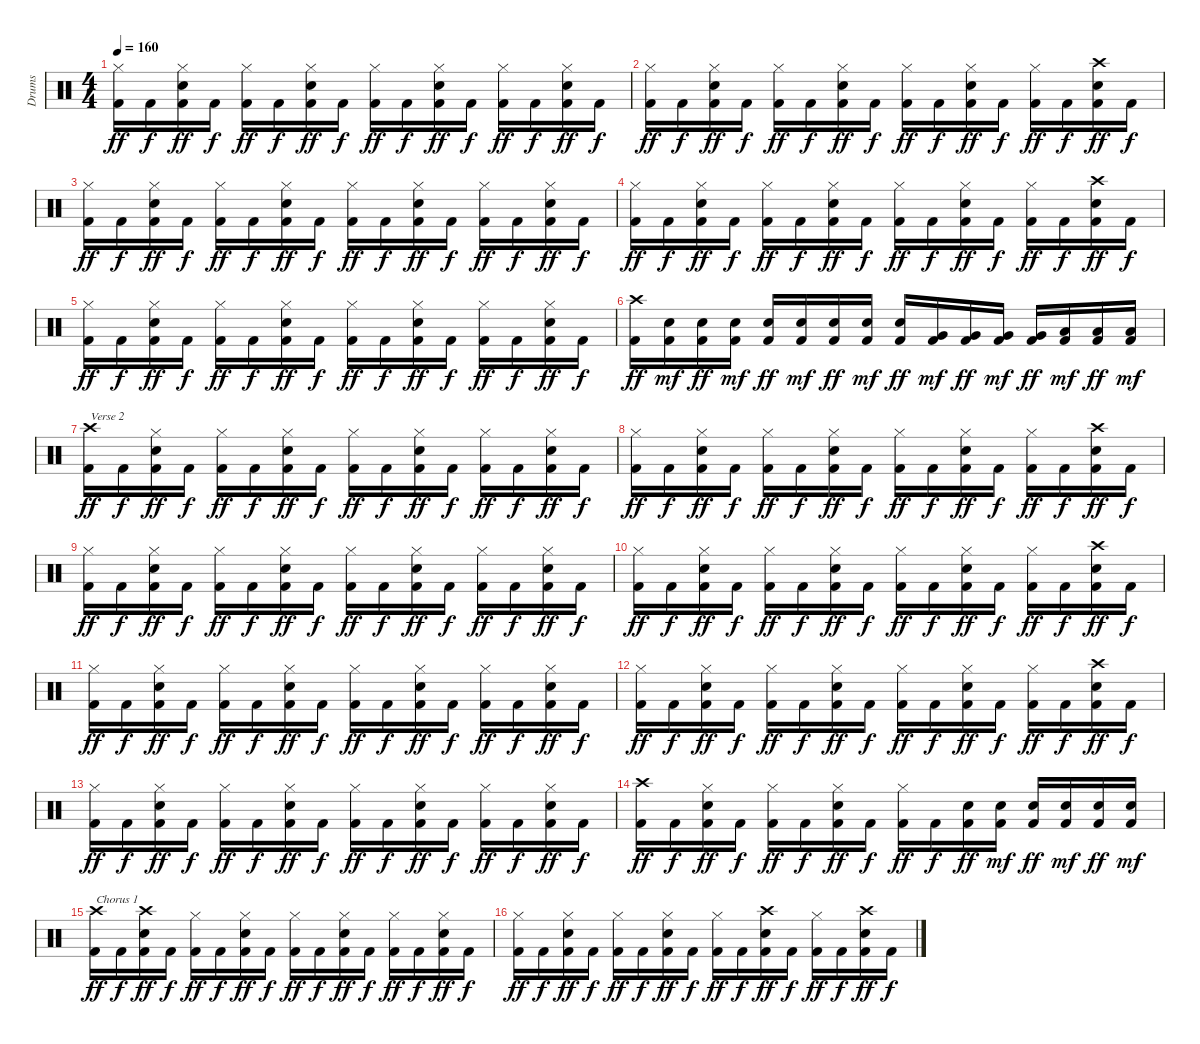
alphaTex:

\track ("Drums" "Drums") {instrument percussion}
\staff {score}
\articulation defaults
\ts (4 4)
\tempo 160
\clef neutral
\ks c
("Hi-Hat (closed)" "Kick (hit) 2").16{dy ff} "Kick (hit) 2".16{dy f} ("Hi-Hat (closed)" "Snare (hit) 2" "Kick (hit) 2").16{dy ff} "Kick (hit) 2".16{dy f} ("Hi-Hat (closed)" "Kick (hit) 2").16{dy ff} "Kick (hit) 2".16{dy f} ("Hi-Hat (closed)" "Snare (hit) 2" "Kick (hit) 2").16{dy ff} "Kick (hit) 2".16{dy f} ("Hi-Hat (closed)" "Kick (hit) 2").16{dy ff} "Kick (hit) 2".16{dy f} ("Hi-Hat (closed)" "Snare (hit) 2" "Kick (hit) 2").16{dy ff} "Kick (hit) 2".16{dy f} ("Hi-Hat (closed)" "Kick (hit) 2").16{dy ff} "Kick (hit) 2".16{dy f} ("Hi-Hat (closed)" "Snare (hit) 2" "Kick (hit) 2").16{dy ff} "Kick (hit) 2".16{dy f} |
("Hi-Hat (closed)" "Kick (hit) 2").16{dy ff} "Kick (hit) 2".16{dy f} ("Hi-Hat (closed)" "Snare (hit) 2" "Kick (hit) 2").16{dy ff} "Kick (hit) 2".16{dy f} ("Hi-Hat (closed)" "Kick (hit) 2").16{dy ff} "Kick (hit) 2".16{dy f} ("Hi-Hat (closed)" "Snare (hit) 2" "Kick (hit) 2").16{dy ff} "Kick (hit) 2".16{dy f} ("Hi-Hat (closed)" "Kick (hit) 2").16{dy ff} "Kick (hit) 2".16{dy f} ("Hi-Hat (closed)" "Snare (hit) 2" "Kick (hit) 2").16{dy ff} "Kick (hit) 2".16{dy f} ("Hi-Hat (closed)" "Kick (hit) 2").16{dy ff} "Kick (hit) 2".16{dy f} ("Crash high (hit)" "Snare (hit) 2" "Kick (hit) 2").16{dy ff} "Kick (hit) 2".16{dy f} |
("Hi-Hat (closed)" "Kick (hit) 2").16{dy ff} "Kick (hit) 2".16{dy f} ("Hi-Hat (closed)" "Snare (hit) 2" "Kick (hit) 2").16{dy ff} "Kick (hit) 2".16{dy f} ("Hi-Hat (closed)" "Kick (hit) 2").16{dy ff} "Kick (hit) 2".16{dy f} ("Hi-Hat (closed)" "Snare (hit) 2" "Kick (hit) 2").16{dy ff} "Kick (hit) 2".16{dy f} ("Hi-Hat (closed)" "Kick (hit) 2").16{dy ff} "Kick (hit) 2".16{dy f} ("Hi-Hat (closed)" "Snare (hit) 2" "Kick (hit) 2").16{dy ff} "Kick (hit) 2".16{dy f} ("Hi-Hat (closed)" "Kick (hit) 2").16{dy ff} "Kick (hit) 2".16{dy f} ("Hi-Hat (closed)" "Snare (hit) 2" "Kick (hit) 2").16{dy ff} "Kick (hit) 2".16{dy f} |
("Hi-Hat (closed)" "Kick (hit) 2").16{dy ff} "Kick (hit) 2".16{dy f} ("Hi-Hat (closed)" "Snare (hit) 2" "Kick (hit) 2").16{dy ff} "Kick (hit) 2".16{dy f} ("Hi-Hat (closed)" "Kick (hit) 2").16{dy ff} "Kick (hit) 2".16{dy f} ("Hi-Hat (closed)" "Snare (hit) 2" "Kick (hit) 2").16{dy ff} "Kick (hit) 2".16{dy f} ("Hi-Hat (closed)" "Kick (hit) 2").16{dy ff} "Kick (hit) 2".16{dy f} ("Hi-Hat (closed)" "Snare (hit) 2" "Kick (hit) 2").16{dy ff} "Kick (hit) 2".16{dy f} ("Hi-Hat (closed)" "Kick (hit) 2").16{dy ff} "Kick (hit) 2".16{dy f} ("Crash high (hit)" "Snare (hit) 2" "Kick (hit) 2").16{dy ff} "Kick (hit) 2".16{dy f} |
("Hi-Hat (closed)" "Kick (hit) 2").16{dy ff} "Kick (hit) 2".16{dy f} ("Hi-Hat (closed)" "Snare (hit) 2" "Kick (hit) 2").16{dy ff} "Kick (hit) 2".16{dy f} ("Hi-Hat (closed)" "Kick (hit) 2").16{dy ff} "Kick (hit) 2".16{dy f} ("Hi-Hat (closed)" "Snare (hit) 2" "Kick (hit) 2").16{dy ff} "Kick (hit) 2".16{dy f} ("Hi-Hat (closed)" "Kick (hit) 2").16{dy ff} "Kick (hit) 2".16{dy f} ("Hi-Hat (closed)" "Snare (hit) 2" "Kick (hit) 2").16{dy ff} "Kick (hit) 2".16{dy f} ("Hi-Hat (closed)" "Kick (hit) 2").16{dy ff} "Kick (hit) 2".16{dy f} ("Hi-Hat (closed)" "Snare (hit) 2" "Kick (hit) 2").16{dy ff} "Kick (hit) 2".16{dy f} |
("Crash high (hit)" "Kick (hit) 2").16{dy ff} ("Snare (hit) 2" "Kick (hit) 2").16{dy mf} ("Snare (hit) 2" "Kick (hit) 2").16{dy ff} ("Snare (hit) 2" "Kick (hit) 2").16{dy mf} ("Snare (hit) 2" "Kick (hit) 2").16{dy ff} ("Snare (hit) 2" "Kick (hit) 2").16{dy mf} ("Snare (hit) 2" "Kick (hit) 2").16{dy ff} ("Snare (hit) 2" "Kick (hit) 2").16{dy mf} ("Snare (hit) 2" "Kick (hit) 2").16{dy ff} ("Very Low Tom (hit)" "Kick (hit) 2").16{dy mf} ("Very Low Tom (hit)" "Kick (hit) 2").16{dy ff} ("Very Low Tom (hit)" "Kick (hit) 2").16{dy mf} ("Very Low Tom (hit)" "Kick (hit) 2").16{dy ff} ("Low Floor Tom (hit)" "Kick (hit) 2").16{dy mf} ("Low Floor Tom (hit)" "Kick (hit) 2").16{dy ff} ("Low Floor Tom (hit)" "Kick (hit) 2").16{dy mf} |
("Crash high (hit)" "Kick (hit) 2").16{txt "Verse 2" dy ff} "Kick (hit) 2".16{dy f} ("Hi-Hat (closed)" "Snare (hit) 2" "Kick (hit) 2").16{dy ff} "Kick (hit) 2".16{dy f} ("Hi-Hat (closed)" "Kick (hit) 2").16{dy ff} "Kick (hit) 2".16{dy f} ("Hi-Hat (closed)" "Snare (hit) 2" "Kick (hit) 2").16{dy ff} "Kick (hit) 2".16{dy f} ("Hi-Hat (closed)" "Kick (hit) 2").16{dy ff} "Kick (hit) 2".16{dy f} ("Hi-Hat (closed)" "Snare (hit) 2" "Kick (hit) 2").16{dy ff} "Kick (hit) 2".16{dy f} ("Hi-Hat (closed)" "Kick (hit) 2").16{dy ff} "Kick (hit) 2".16{dy f} ("Hi-Hat (closed)" "Snare (hit) 2" "Kick (hit) 2").16{dy ff} "Kick (hit) 2".16{dy f} |
("Hi-Hat (closed)" "Kick (hit) 2").16{dy ff} "Kick (hit) 2".16{dy f} ("Hi-Hat (closed)" "Snare (hit) 2" "Kick (hit) 2").16{dy ff} "Kick (hit) 2".16{dy f} ("Hi-Hat (closed)" "Kick (hit) 2").16{dy ff} "Kick (hit) 2".16{dy f} ("Hi-Hat (closed)" "Snare (hit) 2" "Kick (hit) 2").16{dy ff} "Kick (hit) 2".16{dy f} ("Hi-Hat (closed)" "Kick (hit) 2").16{dy ff} "Kick (hit) 2".16{dy f} ("Hi-Hat (closed)" "Snare (hit) 2" "Kick (hit) 2").16{dy ff} "Kick (hit) 2".16{dy f} ("Hi-Hat (closed)" "Kick (hit) 2").16{dy ff} "Kick (hit) 2".16{dy f} ("Crash high (hit)" "Snare (hit) 2" "Kick (hit) 2").16{dy ff} "Kick (hit) 2".16{dy f} |
("Hi-Hat (closed)" "Kick (hit) 2").16{dy ff} "Kick (hit) 2".16{dy f} ("Hi-Hat (closed)" "Snare (hit) 2" "Kick (hit) 2").16{dy ff} "Kick (hit) 2".16{dy f} ("Hi-Hat (closed)" "Kick (hit) 2").16{dy ff} "Kick (hit) 2".16{dy f} ("Hi-Hat (closed)" "Snare (hit) 2" "Kick (hit) 2").16{dy ff} "Kick (hit) 2".16{dy f} ("Hi-Hat (closed)" "Kick (hit) 2").16{dy ff} "Kick (hit) 2".16{dy f} ("Hi-Hat (closed)" "Snare (hit) 2" "Kick (hit) 2").16{dy ff} "Kick (hit) 2".16{dy f} ("Hi-Hat (closed)" "Kick (hit) 2").16{dy ff} "Kick (hit) 2".16{dy f} ("Hi-Hat (closed)" "Snare (hit) 2" "Kick (hit) 2").16{dy ff} "Kick (hit) 2".16{dy f} |
("Hi-Hat (closed)" "Kick (hit) 2").16{dy ff} "Kick (hit) 2".16{dy f} ("Hi-Hat (closed)" "Snare (hit) 2" "Kick (hit) 2").16{dy ff} "Kick (hit) 2".16{dy f} ("Hi-Hat (closed)" "Kick (hit) 2").16{dy ff} "Kick (hit) 2".16{dy f} ("Hi-Hat (closed)" "Snare (hit) 2" "Kick (hit) 2").16{dy ff} "Kick (hit) 2".16{dy f} ("Hi-Hat (closed)" "Kick (hit) 2").16{dy ff} "Kick (hit) 2".16{dy f} ("Hi-Hat (closed)" "Snare (hit) 2" "Kick (hit) 2").16{dy ff} "Kick (hit) 2".16{dy f} ("Hi-Hat (closed)" "Kick (hit) 2").16{dy ff} "Kick (hit) 2".16{dy f} ("Crash high (hit)" "Snare (hit) 2" "Kick (hit) 2").16{dy ff} "Kick (hit) 2".16{dy f} |
("Hi-Hat (closed)" "Kick (hit) 2").16{dy ff} "Kick (hit) 2".16{dy f} ("Hi-Hat (closed)" "Snare (hit) 2" "Kick (hit) 2").16{dy ff} "Kick (hit) 2".16{dy f} ("Hi-Hat (closed)" "Kick (hit) 2").16{dy ff} "Kick (hit) 2".16{dy f} ("Hi-Hat (closed)" "Snare (hit) 2" "Kick (hit) 2").16{dy ff} "Kick (hit) 2".16{dy f} ("Hi-Hat (closed)" "Kick (hit) 2").16{dy ff} "Kick (hit) 2".16{dy f} ("Hi-Hat (closed)" "Snare (hit) 2" "Kick (hit) 2").16{dy ff} "Kick (hit) 2".16{dy f} ("Hi-Hat (closed)" "Kick (hit) 2").16{dy ff} "Kick (hit) 2".16{dy f} ("Hi-Hat (closed)" "Snare (hit) 2" "Kick (hit) 2").16{dy ff} "Kick (hit) 2".16{dy f} |
("Hi-Hat (closed)" "Kick (hit) 2").16{dy ff} "Kick (hit) 2".16{dy f} ("Hi-Hat (closed)" "Snare (hit) 2" "Kick (hit) 2").16{dy ff} "Kick (hit) 2".16{dy f} ("Hi-Hat (closed)" "Kick (hit) 2").16{dy ff} "Kick (hit) 2".16{dy f} ("Hi-Hat (closed)" "Snare (hit) 2" "Kick (hit) 2").16{dy ff} "Kick (hit) 2".16{dy f} ("Hi-Hat (closed)" "Kick (hit) 2").16{dy ff} "Kick (hit) 2".16{dy f} ("Hi-Hat (closed)" "Snare (hit) 2" "Kick (hit) 2").16{dy ff} "Kick (hit) 2".16{dy f} ("Hi-Hat (closed)" "Kick (hit) 2").16{dy ff} "Kick (hit) 2".16{dy f} ("Crash high (hit)" "Snare (hit) 2" "Kick (hit) 2").16{dy ff} "Kick (hit) 2".16{dy f} |
("Hi-Hat (closed)" "Kick (hit) 2").16{dy ff} "Kick (hit) 2".16{dy f} ("Hi-Hat (closed)" "Snare (hit) 2" "Kick (hit) 2").16{dy ff} "Kick (hit) 2".16{dy f} ("Hi-Hat (closed)" "Kick (hit) 2").16{dy ff} "Kick (hit) 2".16{dy f} ("Hi-Hat (closed)" "Snare (hit) 2" "Kick (hit) 2").16{dy ff} "Kick (hit) 2".16{dy f} ("Hi-Hat (closed)" "Kick (hit) 2").16{dy ff} "Kick (hit) 2".16{dy f} ("Hi-Hat (closed)" "Snare (hit) 2" "Kick (hit) 2").16{dy ff} "Kick (hit) 2".16{dy f} ("Hi-Hat (closed)" "Kick (hit) 2").16{dy ff} "Kick (hit) 2".16{dy f} ("Hi-Hat (closed)" "Snare (hit) 2" "Kick (hit) 2").16{dy ff} "Kick (hit) 2".16{dy f} |
("Crash high (hit)" "Kick (hit) 2").16{dy ff} "Kick (hit) 2".16{dy f} ("Hi-Hat (closed)" "Snare (hit) 2" "Kick (hit) 2").16{dy ff} "Kick (hit) 2".16{dy f} ("Hi-Hat (closed)" "Kick (hit) 2").16{dy ff} "Kick (hit) 2".16{dy f} ("Hi-Hat (closed)" "Snare (hit) 2" "Kick (hit) 2").16{dy ff} "Kick (hit) 2".16{dy f} ("Hi-Hat (closed)" "Kick (hit) 2").16{dy ff} "Kick (hit) 2".16{dy f} ("Snare (hit) 2" "Kick (hit) 2").16{dy ff} ("Snare (hit) 2" "Kick (hit) 2").16{dy mf} ("Snare (hit) 2" "Kick (hit) 2").16{dy ff} ("Snare (hit) 2" "Kick (hit) 2").16{dy mf} ("Snare (hit) 2" "Kick (hit) 2").16{dy ff} ("Snare (hit) 2" "Kick (hit) 2").16{dy mf} |
("Crash high (hit)" "Kick (hit) 2").16{txt "Chorus 1" dy ff} "Kick (hit) 2".16{dy f} ("Crash high (hit)" "Snare (hit) 2" "Kick (hit) 2").16{dy ff} "Kick (hit) 2".16{dy f} ("Hi-Hat (closed)" "Kick (hit) 2").16{dy ff} "Kick (hit) 2".16{dy f} ("Hi-Hat (closed)" "Snare (hit) 2" "Kick (hit) 2").16{dy ff} "Kick (hit) 2".16{dy f} ("Hi-Hat (closed)" "Kick (hit) 2").16{dy ff} "Kick (hit) 2".16{dy f} ("Hi-Hat (closed)" "Snare (hit) 2" "Kick (hit) 2").16{dy ff} "Kick (hit) 2".16{dy f} ("Hi-Hat (closed)" "Kick (hit) 2").16{dy ff} "Kick (hit) 2".16{dy f} ("Hi-Hat (closed)" "Snare (hit) 2" "Kick (hit) 2").16{dy ff} "Kick (hit) 2".16{dy f} |
("Hi-Hat (closed)" "Kick (hit) 2").16{dy ff} "Kick (hit) 2".16{dy f} ("Hi-Hat (closed)" "Snare (hit) 2" "Kick (hit) 2").16{dy ff} "Kick (hit) 2".16{dy f} ("Hi-Hat (closed)" "Kick (hit) 2").16{dy ff} "Kick (hit) 2".16{dy f} ("Hi-Hat (closed)" "Snare (hit) 2" "Kick (hit) 2").16{dy ff} "Kick (hit) 2".16{dy f} ("Hi-Hat (closed)" "Kick (hit) 2").16{dy ff} "Kick (hit) 2".16{dy f} ("Crash high (hit)" "Snare (hit) 2" "Kick (hit) 2").16{dy ff} "Kick (hit) 2".16{dy f} ("Hi-Hat (closed)" "Kick (hit) 2").16{dy ff} "Kick (hit) 2".16{dy f} ("Crash high (hit)" "Snare (hit) 2" "Kick (hit) 2").16{dy ff} "Kick (hit) 2".16{dy f}
